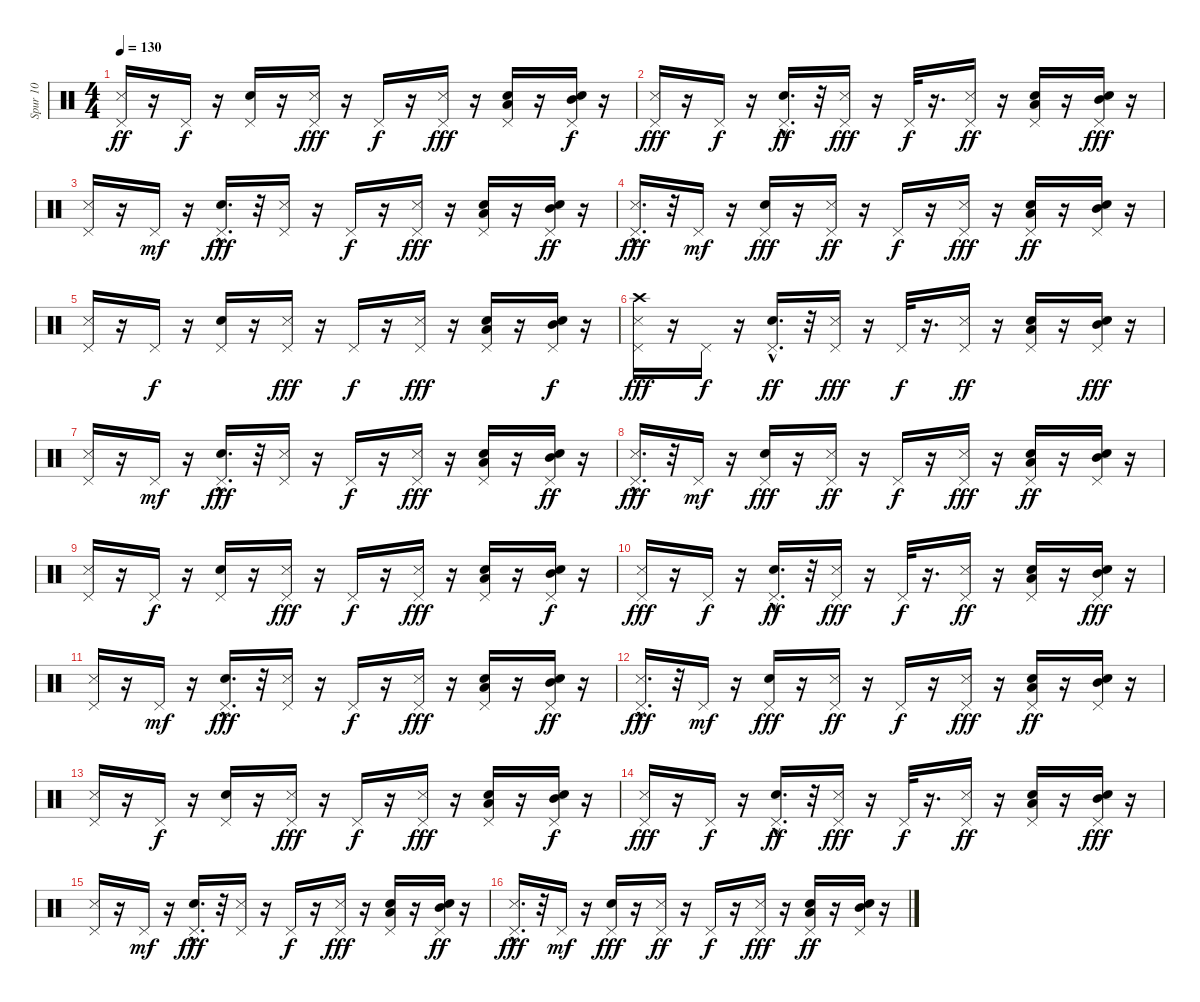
\track ("Spur 10" "Spur 10") {instrument percussion}
\staff {score}
\articulation defaults
\ts (4 4)
\tempo 130
\clef neutral
\ks c
("Metronome (hit)" "Pedal Hi-Hat (hit)").16{dy ff} r.16 "Pedal Hi-Hat (hit)".16{dy f} r.16 ("Snare (hit) 2" "Pedal Hi-Hat (hit)").16 r.16 ("Metronome (hit)" "Pedal Hi-Hat (hit)").16{dy fff} r.16 "Pedal Hi-Hat (hit)".16{dy f} r.16 ("Metronome (hit)" "Pedal Hi-Hat (hit)").16{dy fff} r.16 ("Snare (hit) 2" "Low Tom (hit)" "Pedal Hi-Hat (hit)").16 r.16 ("Snare (hit) 2" "Mid Tom (hit)" "Pedal Hi-Hat (hit)").16{dy f} r.16 |
("Pedal Hi-Hat (hit)" "Metronome (hit)").16{dy fff} r.16 "Pedal Hi-Hat (hit)".16{dy f} r.16 ("Snare (hit) 2"{hac} "Pedal Hi-Hat (hit)").16{d dy ff} r.32 ("Metronome (hit)" "Pedal Hi-Hat (hit)").16{dy fff} r.16 "Pedal Hi-Hat (hit)".32{dy f} r.16{d} ("Metronome (hit)" "Pedal Hi-Hat (hit)").16{dy ff} r.16 ("Low Tom (hit)" "Snare (hit) 2" "Pedal Hi-Hat (hit)").16 r.16 ("Mid Tom (hit)" "Snare (hit) 2" "Pedal Hi-Hat (hit)").16{dy fff} r.16 |
("Pedal Hi-Hat (hit)" "Metronome (hit)").16 r.16 "Pedal Hi-Hat (hit)".16{dy mf} r.16 ("Pedal Hi-Hat (hit)" "Snare (hit) 2"{hac}).16{d dy fff} r.32 ("Pedal Hi-Hat (hit)" "Metronome (hit)").16 r.16 "Pedal Hi-Hat (hit)".16{dy f} r.16 ("Pedal Hi-Hat (hit)" "Metronome (hit)").16{dy fff} r.16 ("Low Tom (hit)" "Pedal Hi-Hat (hit)" "Snare (hit) 2").16 r.16 ("Mid Tom (hit)" "Pedal Hi-Hat (hit)" "Snare (hit) 2").16{dy ff} r.16 |
("Pedal Hi-Hat (hit)" "Metronome (hit)"{hac}).16{d dy fff} r.32 "Pedal Hi-Hat (hit)".16{dy mf} r.16 ("Pedal Hi-Hat (hit)" "Snare (hit) 2").16{dy fff} r.16 ("Metronome (hit)" "Pedal Hi-Hat (hit)").16{dy ff} r.16 "Pedal Hi-Hat (hit)".16{dy f} r.16 ("Metronome (hit)" "Pedal Hi-Hat (hit)").16{dy fff} r.16 ("Snare (hit) 2" "Low Tom (hit)" "Pedal Hi-Hat (hit)").16{dy ff} r.16 ("Snare (hit) 2" "Mid Tom (hit)" "Pedal Hi-Hat (hit)").16 r.16 |
("Metronome (hit)" "Pedal Hi-Hat (hit)").16 r.16 "Pedal Hi-Hat (hit)".16{dy f} r.16 ("Snare (hit) 2" "Pedal Hi-Hat (hit)").16 r.16 ("Metronome (hit)" "Pedal Hi-Hat (hit)").16{dy fff} r.16 "Pedal Hi-Hat (hit)".16{dy f} r.16 ("Metronome (hit)" "Pedal Hi-Hat (hit)").16{dy fff} r.16 ("Snare (hit) 2" "Low Tom (hit)" "Pedal Hi-Hat (hit)").16 r.16 ("Snare (hit) 2" "Mid Tom (hit)" "Pedal Hi-Hat (hit)").16{dy f} r.16 |
("Pedal Hi-Hat (hit)" "Metronome (hit)" "Crash high (hit)").16{dy fff} r.16 "Pedal Hi-Hat (hit)".16{dy f} r.16 ("Snare (hit) 2"{hac} "Pedal Hi-Hat (hit)").16{d dy ff} r.32 ("Metronome (hit)" "Pedal Hi-Hat (hit)").16{dy fff} r.16 "Pedal Hi-Hat (hit)".32{dy f} r.16{d} ("Metronome (hit)" "Pedal Hi-Hat (hit)").16{dy ff} r.16 ("Low Tom (hit)" "Snare (hit) 2" "Pedal Hi-Hat (hit)").16 r.16 ("Mid Tom (hit)" "Snare (hit) 2" "Pedal Hi-Hat (hit)").16{dy fff} r.16 |
("Pedal Hi-Hat (hit)" "Metronome (hit)").16 r.16 "Pedal Hi-Hat (hit)".16{dy mf} r.16 ("Pedal Hi-Hat (hit)" "Snare (hit) 2"{hac}).16{d dy fff} r.32 ("Pedal Hi-Hat (hit)" "Metronome (hit)").16 r.16 "Pedal Hi-Hat (hit)".16{dy f} r.16 ("Pedal Hi-Hat (hit)" "Metronome (hit)").16{dy fff} r.16 ("Low Tom (hit)" "Pedal Hi-Hat (hit)" "Snare (hit) 2").16 r.16 ("Mid Tom (hit)" "Pedal Hi-Hat (hit)" "Snare (hit) 2").16{dy ff} r.16 |
("Pedal Hi-Hat (hit)" "Metronome (hit)"{hac}).16{d dy fff} r.32 "Pedal Hi-Hat (hit)".16{dy mf} r.16 ("Pedal Hi-Hat (hit)" "Snare (hit) 2").16{dy fff} r.16 ("Metronome (hit)" "Pedal Hi-Hat (hit)").16{dy ff} r.16 "Pedal Hi-Hat (hit)".16{dy f} r.16 ("Metronome (hit)" "Pedal Hi-Hat (hit)").16{dy fff} r.16 ("Snare (hit) 2" "Low Tom (hit)" "Pedal Hi-Hat (hit)").16{dy ff} r.16 ("Snare (hit) 2" "Mid Tom (hit)" "Pedal Hi-Hat (hit)").16 r.16 |
("Metronome (hit)" "Pedal Hi-Hat (hit)").16 r.16 "Pedal Hi-Hat (hit)".16{dy f} r.16 ("Snare (hit) 2" "Pedal Hi-Hat (hit)").16 r.16 ("Metronome (hit)" "Pedal Hi-Hat (hit)").16{dy fff} r.16 "Pedal Hi-Hat (hit)".16{dy f} r.16 ("Metronome (hit)" "Pedal Hi-Hat (hit)").16{dy fff} r.16 ("Snare (hit) 2" "Low Tom (hit)" "Pedal Hi-Hat (hit)").16 r.16 ("Snare (hit) 2" "Mid Tom (hit)" "Pedal Hi-Hat (hit)").16{dy f} r.16 |
("Pedal Hi-Hat (hit)" "Metronome (hit)").16{dy fff} r.16 "Pedal Hi-Hat (hit)".16{dy f} r.16 ("Snare (hit) 2"{hac} "Pedal Hi-Hat (hit)").16{d dy ff} r.32 ("Metronome (hit)" "Pedal Hi-Hat (hit)").16{dy fff} r.16 "Pedal Hi-Hat (hit)".32{dy f} r.16{d} ("Metronome (hit)" "Pedal Hi-Hat (hit)").16{dy ff} r.16 ("Low Tom (hit)" "Snare (hit) 2" "Pedal Hi-Hat (hit)").16 r.16 ("Mid Tom (hit)" "Snare (hit) 2" "Pedal Hi-Hat (hit)").16{dy fff} r.16 |
("Pedal Hi-Hat (hit)" "Metronome (hit)").16 r.16 "Pedal Hi-Hat (hit)".16{dy mf} r.16 ("Pedal Hi-Hat (hit)" "Snare (hit) 2"{hac}).16{d dy fff} r.32 ("Pedal Hi-Hat (hit)" "Metronome (hit)").16 r.16 "Pedal Hi-Hat (hit)".16{dy f} r.16 ("Pedal Hi-Hat (hit)" "Metronome (hit)").16{dy fff} r.16 ("Low Tom (hit)" "Pedal Hi-Hat (hit)" "Snare (hit) 2").16 r.16 ("Mid Tom (hit)" "Pedal Hi-Hat (hit)" "Snare (hit) 2").16{dy ff} r.16 |
("Pedal Hi-Hat (hit)" "Metronome (hit)"{hac}).16{d dy fff} r.32 "Pedal Hi-Hat (hit)".16{dy mf} r.16 ("Pedal Hi-Hat (hit)" "Snare (hit) 2").16{dy fff} r.16 ("Metronome (hit)" "Pedal Hi-Hat (hit)").16{dy ff} r.16 "Pedal Hi-Hat (hit)".16{dy f} r.16 ("Metronome (hit)" "Pedal Hi-Hat (hit)").16{dy fff} r.16 ("Snare (hit) 2" "Low Tom (hit)" "Pedal Hi-Hat (hit)").16{dy ff} r.16 ("Snare (hit) 2" "Mid Tom (hit)" "Pedal Hi-Hat (hit)").16 r.16 |
("Metronome (hit)" "Pedal Hi-Hat (hit)").16 r.16 "Pedal Hi-Hat (hit)".16{dy f} r.16 ("Snare (hit) 2" "Pedal Hi-Hat (hit)").16 r.16 ("Metronome (hit)" "Pedal Hi-Hat (hit)").16{dy fff} r.16 "Pedal Hi-Hat (hit)".16{dy f} r.16 ("Metronome (hit)" "Pedal Hi-Hat (hit)").16{dy fff} r.16 ("Snare (hit) 2" "Low Tom (hit)" "Pedal Hi-Hat (hit)").16 r.16 ("Snare (hit) 2" "Mid Tom (hit)" "Pedal Hi-Hat (hit)").16{dy f} r.16 |
("Pedal Hi-Hat (hit)" "Metronome (hit)").16{dy fff} r.16 "Pedal Hi-Hat (hit)".16{dy f} r.16 ("Snare (hit) 2"{hac} "Pedal Hi-Hat (hit)").16{d dy ff} r.32 ("Metronome (hit)" "Pedal Hi-Hat (hit)").16{dy fff} r.16 "Pedal Hi-Hat (hit)".32{dy f} r.16{d} ("Metronome (hit)" "Pedal Hi-Hat (hit)").16{dy ff} r.16 ("Low Tom (hit)" "Snare (hit) 2" "Pedal Hi-Hat (hit)").16 r.16 ("Mid Tom (hit)" "Snare (hit) 2" "Pedal Hi-Hat (hit)").16{dy fff} r.16 |
("Pedal Hi-Hat (hit)" "Metronome (hit)").16 r.16 "Pedal Hi-Hat (hit)".16{dy mf} r.16 ("Pedal Hi-Hat (hit)" "Snare (hit) 2"{hac}).16{d dy fff} r.32 ("Pedal Hi-Hat (hit)" "Metronome (hit)").16 r.16 "Pedal Hi-Hat (hit)".16{dy f} r.16 ("Pedal Hi-Hat (hit)" "Metronome (hit)").16{dy fff} r.16 ("Low Tom (hit)" "Pedal Hi-Hat (hit)" "Snare (hit) 2").16 r.16 ("Mid Tom (hit)" "Pedal Hi-Hat (hit)" "Snare (hit) 2").16{dy ff} r.16 |
("Pedal Hi-Hat (hit)" "Metronome (hit)"{hac}).16{d dy fff} r.32 "Pedal Hi-Hat (hit)".16{dy mf} r.16 ("Pedal Hi-Hat (hit)" "Snare (hit) 2").16{dy fff} r.16 ("Metronome (hit)" "Pedal Hi-Hat (hit)").16{dy ff} r.16 "Pedal Hi-Hat (hit)".16{dy f} r.16 ("Metronome (hit)" "Pedal Hi-Hat (hit)").16{dy fff} r.16 ("Snare (hit) 2" "Low Tom (hit)" "Pedal Hi-Hat (hit)").16{dy ff} r.16 ("Snare (hit) 2" "Mid Tom (hit)" "Pedal Hi-Hat (hit)").16 r.16
